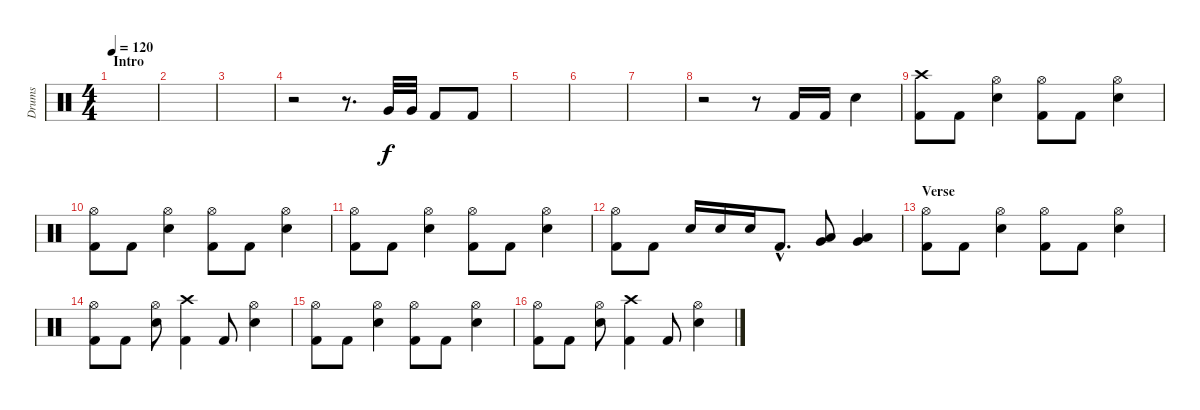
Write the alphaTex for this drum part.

\track ("Drums" "Drums") {instrument percussion}
\staff {score}
\articulation defaults
\ts (4 4)
\section ("" "Intro")
\tempo 120
\clef neutral
\ks c
|
|
|
r.2 r.8{d} "Very Low Tom (hit)".32 "Very Low Tom (hit)".32 "Kick (hit) 2".8 "Kick (hit) 2".8 |
|
|
|
r.2 r.8 "Kick (hit) 2".16 "Kick (hit) 2".16 "Electric Snare (hit)".4 |
("Crash high (hit)" "Kick (hit) 2").8 "Kick (hit) 2".8 ("Hi-Hat (open)" "Electric Snare (hit)").4 ("Hi-Hat (open)" "Kick (hit) 2").8 "Kick (hit) 2".8 ("Hi-Hat (open)" "Electric Snare (hit)").4 |
("Hi-Hat (open)" "Kick (hit) 2").8 "Kick (hit) 2".8 ("Hi-Hat (open)" "Electric Snare (hit)").4 ("Hi-Hat (open)" "Kick (hit) 2").8 "Kick (hit) 2".8 ("Hi-Hat (open)" "Electric Snare (hit)").4 |
("Hi-Hat (open)" "Kick (hit) 2").8 "Kick (hit) 2".8 ("Hi-Hat (open)" "Electric Snare (hit)").4 ("Hi-Hat (open)" "Kick (hit) 2").8 "Kick (hit) 2".8 ("Hi-Hat (open)" "Electric Snare (hit)").4 |
("Hi-Hat (open)" "Kick (hit) 2").8 "Kick (hit) 2".8 "Electric Snare (hit)".16 "Electric Snare (hit)".16 "Electric Snare (hit)".16 "Kick (hit) 2"{hac}.8{d} ("Low Tom (hit)" "Very Low Tom (hit)").8 ("Very Low Tom (hit)" "Low Floor Tom (hit)").4 |
\section ("" "Verse")
("Hi-Hat (open)" "Kick (hit) 2").8 "Kick (hit) 2".8 ("Hi-Hat (open)" "Electric Snare (hit)").4 ("Hi-Hat (open)" "Kick (hit) 2").8 "Kick (hit) 2".8 ("Hi-Hat (open)" "Electric Snare (hit)").4 |
("Hi-Hat (open)" "Kick (hit) 2").8 "Kick (hit) 2".8 ("Hi-Hat (open)" "Electric Snare (hit)").8 ("Crash high (hit)" "Kick (hit) 2").4 "Kick (hit) 2".8 ("Hi-Hat (open)" "Electric Snare (hit)").4 |
("Hi-Hat (open)" "Kick (hit) 2").8 "Kick (hit) 2".8 ("Hi-Hat (open)" "Electric Snare (hit)").4 ("Hi-Hat (open)" "Kick (hit) 2").8 "Kick (hit) 2".8 ("Hi-Hat (open)" "Electric Snare (hit)").4 |
("Hi-Hat (open)" "Kick (hit) 2").8 "Kick (hit) 2".8 ("Hi-Hat (open)" "Electric Snare (hit)").8 ("Crash high (hit)" "Kick (hit) 2").4 "Kick (hit) 2".8 ("Hi-Hat (open)" "Electric Snare (hit)").4
